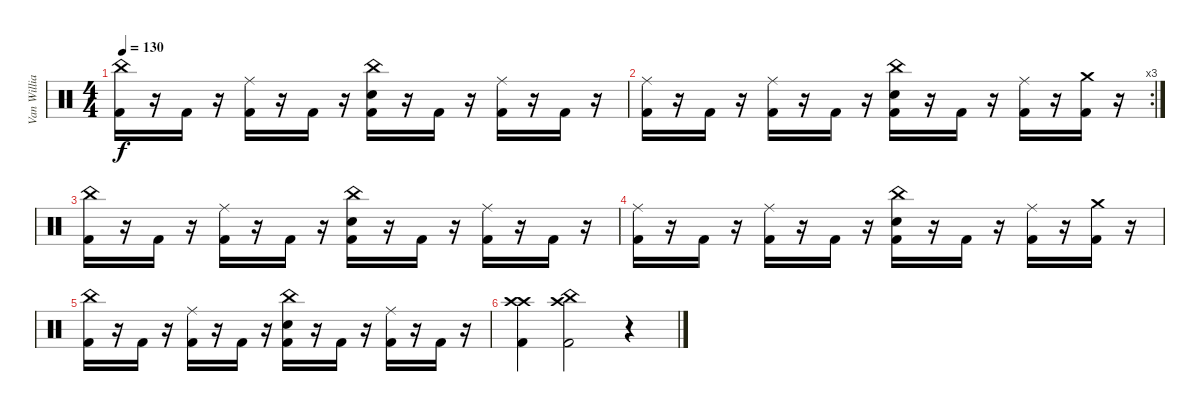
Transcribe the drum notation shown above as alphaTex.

\track ("Van Williams" "Van Willia") {instrument percussion}
\staff {score}
\articulation defaults
\ts (4 4)
\tempo 130
\clef neutral
\ks c
("China (hit)" "Kick (hit) 2").16{dy f} r.16 "Kick (hit) 2".16 r.16 ("Ride (middle)" "Kick (hit) 2").16 r.16 "Kick (hit) 2".16 r.16 ("China (hit)" "Kick (hit) 2" "Electric Snare (hit)").16 r.16 "Kick (hit) 2".16 r.16 ("Ride (middle)" "Kick (hit) 2").16 r.16 "Kick (hit) 2".16 r.16 |
\rc 3
("Ride (middle)" "Kick (hit) 2").16 r.16 "Kick (hit) 2".16 r.16 ("Ride (middle)" "Kick (hit) 2").16 r.16 "Kick (hit) 2".16 r.16 ("China (hit)" "Kick (hit) 2" "Electric Snare (hit)").16 r.16 "Kick (hit) 2".16 r.16 ("Ride (middle)" "Kick (hit) 2").16 r.16 ("Crash medium (hit)" "Kick (hit) 2").16 r.16 |
("China (hit)" "Kick (hit) 2").16 r.16 "Kick (hit) 2".16 r.16 ("Ride (middle)" "Kick (hit) 2").16 r.16 "Kick (hit) 2".16 r.16 ("China (hit)" "Kick (hit) 2" "Electric Snare (hit)").16 r.16 "Kick (hit) 2".16 r.16 ("Ride (middle)" "Kick (hit) 2").16 r.16 "Kick (hit) 2".16 r.16 |
("Ride (middle)" "Kick (hit) 2").16 r.16 "Kick (hit) 2".16 r.16 ("Ride (middle)" "Kick (hit) 2").16 r.16 "Kick (hit) 2".16 r.16 ("China (hit)" "Kick (hit) 2" "Electric Snare (hit)").16 r.16 "Kick (hit) 2".16 r.16 ("Ride (middle)" "Kick (hit) 2").16 r.16 ("Crash medium (hit)" "Kick (hit) 2").16 r.16 |
("China (hit)" "Kick (hit) 2").16 r.16 "Kick (hit) 2".16 r.16 ("Ride (middle)" "Kick (hit) 2").16 r.16 "Kick (hit) 2".16 r.16 ("China (hit)" "Kick (hit) 2" "Electric Snare (hit)").16 r.16 "Kick (hit) 2".16 r.16 ("Ride (middle)" "Kick (hit) 2").16 r.16 "Kick (hit) 2".16 r.16 |
("Crash high (hit)" "Crash high (hit)" "Kick (hit) 2").4 ("Crash high (hit)" "China (hit)" "Kick (hit) 2").2 r.4
